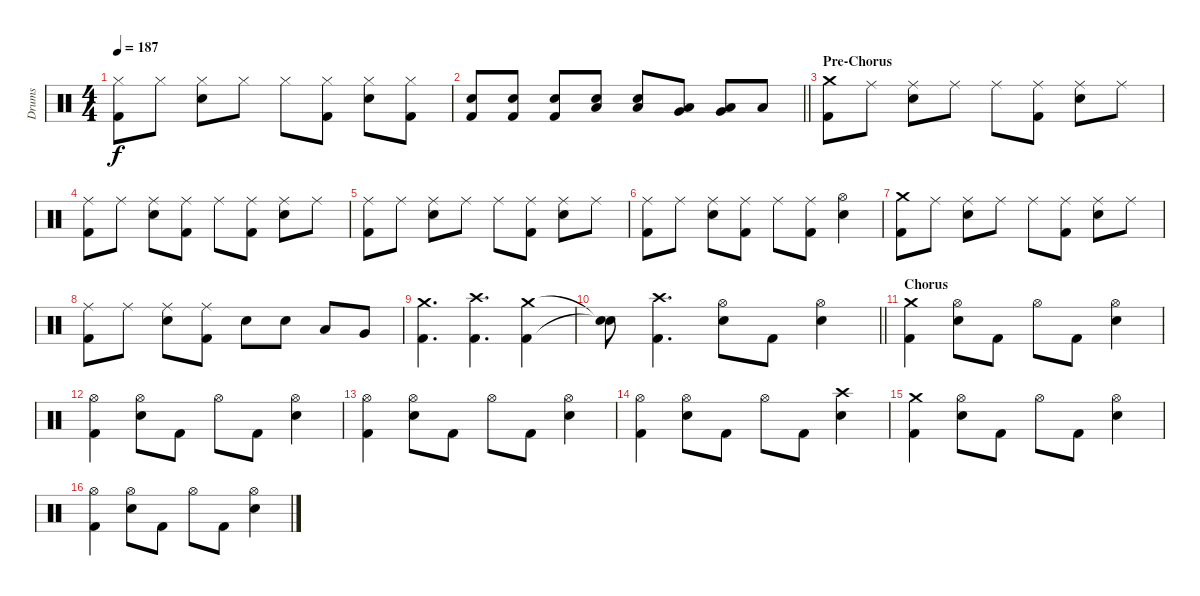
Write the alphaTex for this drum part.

\track ("Drums" "Drums") {instrument percussion}
\staff {score}
\articulation defaults
\ts (4 4)
\tempo 187
\clef neutral
\ks c
("Hi-Hat (closed)" "Kick (hit) 2").8{dy f} "Hi-Hat (closed)".8 ("Hi-Hat (closed)" "Electric Snare (hit)").8 "Hi-Hat (closed)".8 "Hi-Hat (closed)".8 ("Hi-Hat (closed)" "Kick (hit) 2").8 ("Hi-Hat (closed)" "Electric Snare (hit)").8 ("Hi-Hat (closed)" "Kick (hit) 2").8 |
\barLineRight lightlight
("Electric Snare (hit)" "Kick (hit) 2").8 ("Electric Snare (hit)" "Kick (hit) 2").8 ("Electric Snare (hit)" "Kick (hit) 2").8 ("Low Tom (hit)" "Electric Snare (hit)").8 ("Low Tom (hit)" "Electric Snare (hit)").8 ("Low Tom (hit)" "Very Low Tom (hit)").8 ("Low Floor Tom (hit)" "Very Low Tom (hit)").8 "Low Floor Tom (hit)".8 |
\section ("" "Pre-Chorus ")
("Crash medium (hit)" "Kick (hit) 2").8 "Ride (middle)".8 ("Ride (middle)" "Electric Snare (hit)").8 "Ride (middle)".8 "Ride (middle)".8 ("Ride (middle)" "Kick (hit) 2").8 ("Ride (middle)" "Electric Snare (hit)").8 "Ride (middle)".8 |
("Ride (middle)" "Kick (hit) 2").8 "Ride (middle)".8 ("Ride (middle)" "Electric Snare (hit)").8 ("Ride (middle)" "Kick (hit) 2").8 "Ride (middle)".8 ("Ride (middle)" "Kick (hit) 2").8 ("Ride (middle)" "Electric Snare (hit)").8 "Ride (middle)".8 |
("Ride (middle)" "Kick (hit) 2").8 "Ride (middle)".8 ("Ride (middle)" "Electric Snare (hit)").8 "Ride (middle)".8 "Ride (middle)".8 ("Ride (middle)" "Kick (hit) 2").8 ("Ride (middle)" "Electric Snare (hit)").8 "Ride (middle)".8 |
("Ride (middle)" "Kick (hit) 2").8 "Ride (middle)".8 ("Ride (middle)" "Electric Snare (hit)").8 ("Ride (middle)" "Kick (hit) 2").8 "Ride (middle)".8 ("Ride (middle)" "Kick (hit) 2").8 ("Hi-Hat (open)" "Electric Snare (hit)").4 |
("Crash medium (hit)" "Kick (hit) 2").8 "Ride (middle)".8 ("Ride (middle)" "Electric Snare (hit)").8 "Ride (middle)".8 "Ride (middle)".8 ("Ride (middle)" "Kick (hit) 2").8 ("Ride (middle)" "Electric Snare (hit)").8 "Ride (middle)".8 |
("Ride (middle)" "Kick (hit) 2").8 "Ride (middle)".8 ("Ride (middle)" "Electric Snare (hit)").8 ("Ride (middle)" "Kick (hit) 2").8 "Electric Snare (hit)".8 "Electric Snare (hit)".8 "Low Tom (hit)".8 "Very Low Tom (hit)".8 |
("Crash medium (hit)" "Kick (hit) 2").4{d} ("Crash high (hit)" "Kick (hit) 2").4{d} ("Crash medium (hit)" "Kick (hit) 2").4 |
\barLineRight lightlight
("Snare (hit)"{t} "Snare (hit)"{t}).8 ("Crash high (hit)" "Kick (hit) 2").4{d} ("Hi-Hat (open)" "Electric Snare (hit)").8 "Kick (hit) 2".8 ("Hi-Hat (open)" "Electric Snare (hit)").4 |
\section ("" "Chorus")
("Crash medium (hit)" "Kick (hit) 2").4 ("Hi-Hat (open)" "Electric Snare (hit)").8 "Kick (hit) 2".8 "Hi-Hat (open)".8 "Kick (hit) 2".8 ("Hi-Hat (open)" "Electric Snare (hit)").4 |
("Hi-Hat (open)" "Kick (hit) 2").4 ("Hi-Hat (open)" "Electric Snare (hit)").8 "Kick (hit) 2".8 "Hi-Hat (open)".8 "Kick (hit) 2".8 ("Hi-Hat (open)" "Electric Snare (hit)").4 |
("Hi-Hat (open)" "Kick (hit) 2").4 ("Hi-Hat (open)" "Electric Snare (hit)").8 "Kick (hit) 2".8 "Hi-Hat (open)".8 "Kick (hit) 2".8 ("Hi-Hat (open)" "Electric Snare (hit)").4 |
("Hi-Hat (open)" "Kick (hit) 2").4 ("Hi-Hat (open)" "Electric Snare (hit)").8 "Kick (hit) 2".8 "Hi-Hat (open)".8 "Kick (hit) 2".8 ("Crash high (hit)" "Electric Snare (hit)").4 |
("Crash medium (hit)" "Kick (hit) 2").4 ("Hi-Hat (open)" "Electric Snare (hit)").8 "Kick (hit) 2".8 "Hi-Hat (open)".8 "Kick (hit) 2".8 ("Hi-Hat (open)" "Electric Snare (hit)").4 |
("Hi-Hat (open)" "Kick (hit) 2").4 ("Hi-Hat (open)" "Electric Snare (hit)").8 "Kick (hit) 2".8 "Hi-Hat (open)".8 "Kick (hit) 2".8 ("Hi-Hat (open)" "Electric Snare (hit)").4
